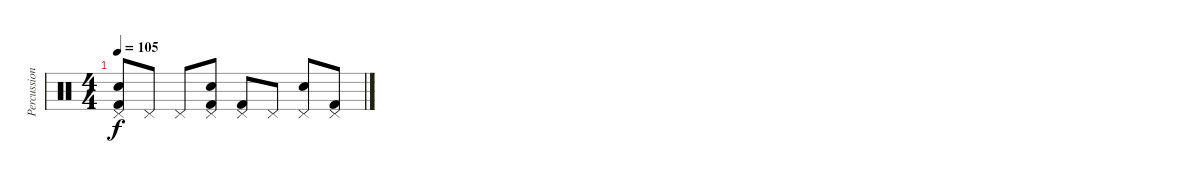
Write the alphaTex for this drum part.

\track ("Percussion" "Percussion") {instrument percussion}
\staff {score}
\articulation defaults
\ts (4 4)
\tempo 105
\clef neutral
\ks c
("Pedal Hi-Hat (hit)" "Snare (hit) 2" "Kick (hit) 2").8{dy f volume 2} "Pedal Hi-Hat (hit)".8 "Pedal Hi-Hat (hit)".8 ("Pedal Hi-Hat (hit)" "Snare (hit) 2" "Kick (hit) 2").8 ("Pedal Hi-Hat (hit)" "Kick (hit) 2").8 "Pedal Hi-Hat (hit)".8 ("Pedal Hi-Hat (hit)" "Snare (hit) 2").8 ("Pedal Hi-Hat (hit)" "Kick (hit) 2").8{volume 0}
